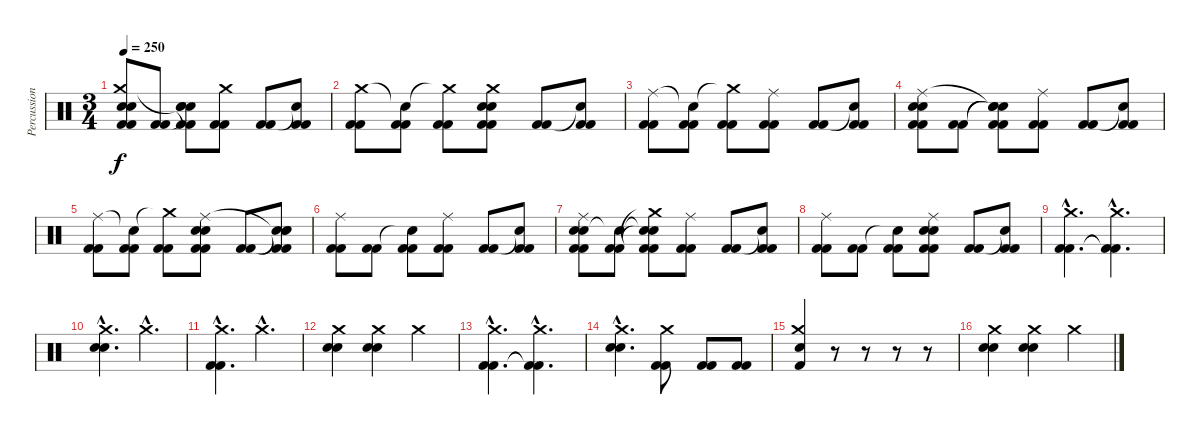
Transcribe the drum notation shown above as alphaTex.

\track ("Percussion" "Percussion") {instrument percussion}
\staff {score}
\articulation defaults
\ts (3 4)
\tempo 250
\clef neutral
\ks c
("Snare (hit) 2" "Snare (hit) 2" "Crash medium (hit)" "Kick (hit) 2" "Kick (hit) 2").8{dy f} ("Kick (hit) 2" "Kick (hit) 2").8 ("Snare (hit)"{t} "Snare (hit)"{t} "Snare (hit)"{t} "Kick (hit) 2" "Kick (hit) 2").8 ("Crash medium (hit)" "Kick (hit) 2" "Kick (hit) 2").8 ("Kick (hit) 2" "Kick (hit) 2").8 ("Snare (hit)"{t} "Kick (hit) 2" "Kick (hit) 2").8 |
("Crash medium (hit)" "Kick (hit) 2" "Kick (hit) 2").8 ("Snare (hit)"{t} "Kick (hit) 2" "Kick (hit) 2").8 ("Crash medium (hit)"{t} "Kick (hit) 2" "Kick (hit) 2").8 ("Snare (hit) 2" "Snare (hit) 2" "Crash medium (hit)" "Kick (hit) 2" "Kick (hit) 2").8 ("Kick (hit) 2" "Kick (hit) 2").8 ("Snare (hit)"{t} "Kick (hit) 2" "Kick (hit) 2").8 |
("Ride (middle)" "Kick (hit) 2" "Kick (hit) 2").8 ("Snare (hit)"{t} "Kick (hit) 2" "Kick (hit) 2").8 ("Crash medium (hit)"{t} "Kick (hit) 2" "Kick (hit) 2").8 ("Ride (middle)" "Kick (hit) 2" "Kick (hit) 2").8 ("Kick (hit) 2" "Kick (hit) 2").8 ("Snare (hit)"{t} "Kick (hit) 2" "Kick (hit) 2").8 |
("Snare (hit) 2" "Snare (hit) 2" "Ride (middle)" "Kick (hit) 2" "Kick (hit) 2").8 ("Kick (hit) 2" "Kick (hit) 2").8 ("Snare (hit)"{t} "Snare (hit)"{t} "Snare (hit)"{t} "Kick (hit) 2" "Kick (hit) 2").8 ("Ride (middle)" "Kick (hit) 2" "Kick (hit) 2").8 ("Kick (hit) 2" "Kick (hit) 2").8 ("Snare (hit)"{t} "Kick (hit) 2" "Kick (hit) 2").8 |
("Ride (middle)" "Kick (hit) 2" "Kick (hit) 2").8 ("Snare (hit)"{t} "Kick (hit) 2" "Kick (hit) 2").8 ("Crash medium (hit)"{t} "Kick (hit) 2" "Kick (hit) 2").8 ("Snare (hit) 2" "Snare (hit) 2" "Ride (middle)" "Kick (hit) 2" "Kick (hit) 2").8 ("Kick (hit) 2" "Kick (hit) 2").8 ("Snare (hit)"{t} "Snare (hit)"{t} "Snare (hit)"{t} "Kick (hit) 2" "Kick (hit) 2").8 |
("Ride (middle)" "Kick (hit) 2" "Kick (hit) 2").8 ("Kick (hit) 2" "Kick (hit) 2").8 ("Snare (hit)"{t} "Kick (hit) 2" "Kick (hit) 2").8 ("Ride (middle)" "Kick (hit) 2" "Kick (hit) 2").8 ("Kick (hit) 2" "Kick (hit) 2").8 ("Snare (hit)"{t} "Kick (hit) 2" "Kick (hit) 2").8 |
("Snare (hit) 2" "Snare (hit) 2" "Ride (middle)" "Kick (hit) 2" "Kick (hit) 2").8 ("Snare (hit)"{t} "Kick (hit) 2" "Kick (hit) 2").8 ("Snare (hit)"{t} "Snare (hit)"{t} "Crash medium (hit)"{t} "Kick (hit) 2" "Kick (hit) 2").8 ("Ride (middle)" "Kick (hit) 2" "Kick (hit) 2").8 ("Kick (hit) 2" "Kick (hit) 2").8 ("Snare (hit)"{t} "Kick (hit) 2" "Kick (hit) 2").8 |
("Ride (middle)" "Kick (hit) 2" "Kick (hit) 2").8 ("Kick (hit) 2" "Kick (hit) 2").8 ("Snare (hit)"{t} "Kick (hit) 2" "Kick (hit) 2").8 ("Snare (hit) 2" "Snare (hit) 2" "Ride (middle)" "Kick (hit) 2" "Kick (hit) 2").8 ("Kick (hit) 2" "Kick (hit) 2").8 ("Snare (hit)"{t} "Kick (hit) 2" "Kick (hit) 2").8 |
("Crash medium (hit)"{hac} "Kick (hit) 2"{hac} "Kick (hit) 2"{hac}).4{d} ("Crash medium (hit)"{hac} "Kick (hit) 2"{hac t} "Kick (hit) 2"{hac t}).4{d} |
("Snare (hit) 2"{hac} "Snare (hit) 2"{hac} "Crash medium (hit)"{hac}).4{d} "Crash medium (hit)"{hac}.4{d} |
("Crash medium (hit)"{hac} "Kick (hit) 2"{hac} "Kick (hit) 2"{hac}).4{d} "Crash medium (hit)"{hac}.4{d} |
("Snare (hit) 2" "Snare (hit) 2" "Crash medium (hit)").4 ("Snare (hit) 2" "Snare (hit) 2" "Crash medium (hit)").4 "Crash medium (hit)".4 |
("Crash medium (hit)"{hac} "Kick (hit) 2"{hac} "Kick (hit) 2"{hac}).4{d} ("Crash medium (hit)"{hac} "Kick (hit) 2"{hac t} "Kick (hit) 2"{hac t}).4{d} |
("Snare (hit) 2"{hac} "Snare (hit) 2"{hac} "Crash medium (hit)"{hac}).4{d} ("Crash medium (hit)" "Kick (hit) 2" "Kick (hit) 2").8 ("Kick (hit) 2" "Kick (hit) 2").8 ("Kick (hit) 2" "Kick (hit) 2").8 |
("Snare (hit) 2" "Crash medium (hit)" "Kick (hit) 2").4 r.8 r.8 r.8 r.8 |
("Snare (hit) 2" "Snare (hit) 2" "Crash medium (hit)").4 ("Snare (hit) 2" "Snare (hit) 2" "Crash medium (hit)").4 "Crash medium (hit)".4
